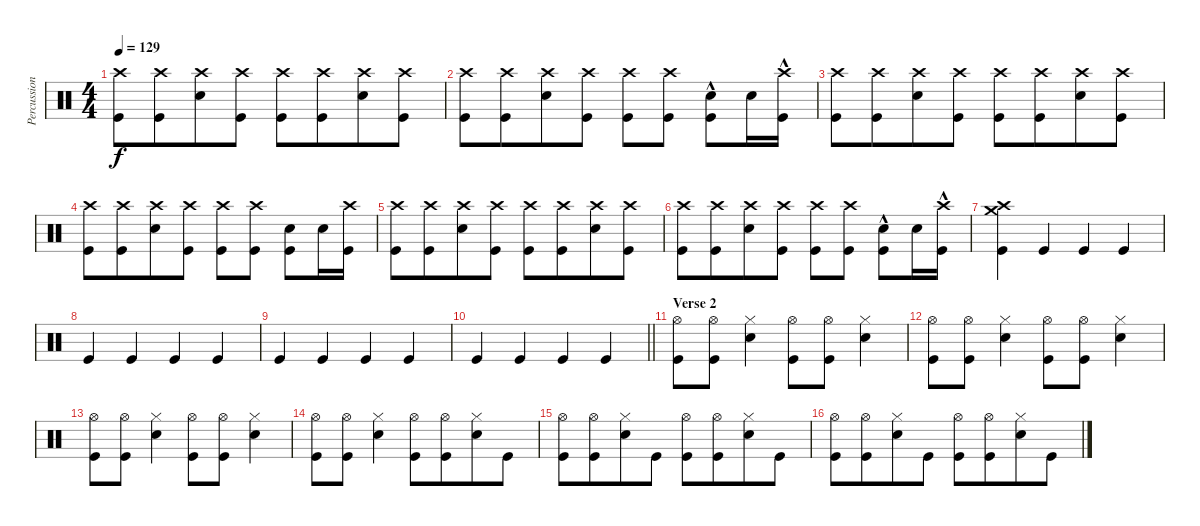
\track ("Percussion" "Percussion") {instrument percussion}
\staff {score}
\articulation defaults
\ts (4 4)
\tempo 129
\clef neutral
\ks c
("Crash high (hit)" "Kick (hit)").8{dy f} ("Crash high (hit)" "Kick (hit)").8{beam merge} ("Crash high (hit)" "Snare (hit) 2").8 ("Crash high (hit)" "Kick (hit)").8 ("Crash high (hit)" "Kick (hit)").8 ("Crash high (hit)" "Kick (hit)").8{beam merge} ("Crash high (hit)" "Snare (hit) 2").8 ("Crash high (hit)" "Kick (hit)").8 |
("Crash high (hit)" "Kick (hit)").8 ("Crash high (hit)" "Kick (hit)").8{beam merge} ("Crash high (hit)" "Snare (hit) 2").8 ("Crash high (hit)" "Kick (hit)").8 ("Crash high (hit)" "Kick (hit)").8 ("Crash high (hit)" "Kick (hit)").8 ("Snare (hit) 2" "Kick (hit)"{hac}).8 "Snare (hit) 2".16 ("Crash high (hit)" "Kick (hit)"{hac}).16 |
("Crash high (hit)" "Kick (hit)").8 ("Crash high (hit)" "Kick (hit)").8{beam merge} ("Crash high (hit)" "Snare (hit) 2").8 ("Crash high (hit)" "Kick (hit)").8 ("Crash high (hit)" "Kick (hit)").8 ("Crash high (hit)" "Kick (hit)").8{beam merge} ("Crash high (hit)" "Snare (hit) 2").8 ("Crash high (hit)" "Kick (hit)").8 |
("Crash high (hit)" "Kick (hit)").8 ("Crash high (hit)" "Kick (hit)").8{beam merge} ("Crash high (hit)" "Snare (hit) 2").8 ("Crash high (hit)" "Kick (hit)").8 ("Crash high (hit)" "Kick (hit)").8 ("Crash high (hit)" "Kick (hit)").8 ("Snare (hit) 2" "Kick (hit)").8 "Snare (hit) 2".16 ("Crash high (hit)" "Kick (hit)").16 |
("Crash high (hit)" "Kick (hit)").8 ("Crash high (hit)" "Kick (hit)").8{beam merge} ("Crash high (hit)" "Snare (hit) 2").8 ("Crash high (hit)" "Kick (hit)").8 ("Crash high (hit)" "Kick (hit)").8 ("Crash high (hit)" "Kick (hit)").8{beam merge} ("Crash high (hit)" "Snare (hit) 2").8 ("Crash high (hit)" "Kick (hit)").8 |
("Crash high (hit)" "Kick (hit)").8 ("Crash high (hit)" "Kick (hit)").8{beam merge} ("Crash high (hit)" "Snare (hit) 2").8 ("Crash high (hit)" "Kick (hit)").8 ("Crash high (hit)" "Kick (hit)").8 ("Crash high (hit)" "Kick (hit)").8 ("Snare (hit) 2" "Kick (hit)"{hac}).8 "Snare (hit) 2".16 ("Crash high (hit)" "Kick (hit)"{hac}).16 |
("Crash medium (hit)" "Crash high (hit)" "Kick (hit)").4 "Kick (hit)".4 "Kick (hit)".4 "Kick (hit)".4 |
"Kick (hit)".4 "Kick (hit)".4 "Kick (hit)".4 "Kick (hit)".4 |
"Kick (hit)".4 "Kick (hit)".4 "Kick (hit)".4 "Kick (hit)".4 |
\barLineRight lightlight "Kick (hit)".4 "Kick (hit)".4 "Kick (hit)".4 "Kick (hit)".4
|
\section ("" "Verse 2")
("Hi-Hat (open)" "Kick (hit)").8 ("Hi-Hat (open)" "Kick (hit)").8 ("Hi-Hat (closed)" "Snare (hit) 2").4 ("Hi-Hat (open)" "Kick (hit)").8 ("Hi-Hat (open)" "Kick (hit)").8 ("Hi-Hat (closed)" "Snare (hit) 2").4 |
("Hi-Hat (open)" "Kick (hit)").8 ("Hi-Hat (open)" "Kick (hit)").8 ("Hi-Hat (closed)" "Snare (hit) 2").4 ("Hi-Hat (open)" "Kick (hit)").8 ("Hi-Hat (open)" "Kick (hit)").8 ("Hi-Hat (closed)" "Snare (hit) 2").4 |
("Hi-Hat (open)" "Kick (hit)").8 ("Hi-Hat (open)" "Kick (hit)").8 ("Hi-Hat (closed)" "Snare (hit) 2").4 ("Hi-Hat (open)" "Kick (hit)").8 ("Hi-Hat (open)" "Kick (hit)").8 ("Hi-Hat (closed)" "Snare (hit) 2").4 |
("Hi-Hat (open)" "Kick (hit)").8 ("Hi-Hat (open)" "Kick (hit)").8 ("Hi-Hat (closed)" "Snare (hit) 2").4 ("Hi-Hat (open)" "Kick (hit)").8 ("Hi-Hat (open)" "Kick (hit)").8{beam merge} ("Hi-Hat (closed)" "Snare (hit) 2").8 "Kick (hit)".8 |
("Hi-Hat (open)" "Kick (hit)").8 ("Hi-Hat (open)" "Kick (hit)").8{beam merge} ("Hi-Hat (closed)" "Snare (hit) 2").8 "Kick (hit)".8 ("Hi-Hat (open)" "Kick (hit)").8 ("Hi-Hat (open)" "Kick (hit)").8{beam merge} ("Hi-Hat (closed)" "Snare (hit) 2").8 "Kick (hit)".8 |
("Hi-Hat (open)" "Kick (hit)").8 ("Hi-Hat (open)" "Kick (hit)").8{beam merge} ("Hi-Hat (closed)" "Snare (hit) 2").8 "Kick (hit)".8 ("Hi-Hat (open)" "Kick (hit)").8 ("Hi-Hat (open)" "Kick (hit)").8{beam merge} ("Hi-Hat (closed)" "Snare (hit) 2").8 "Kick (hit)".8
